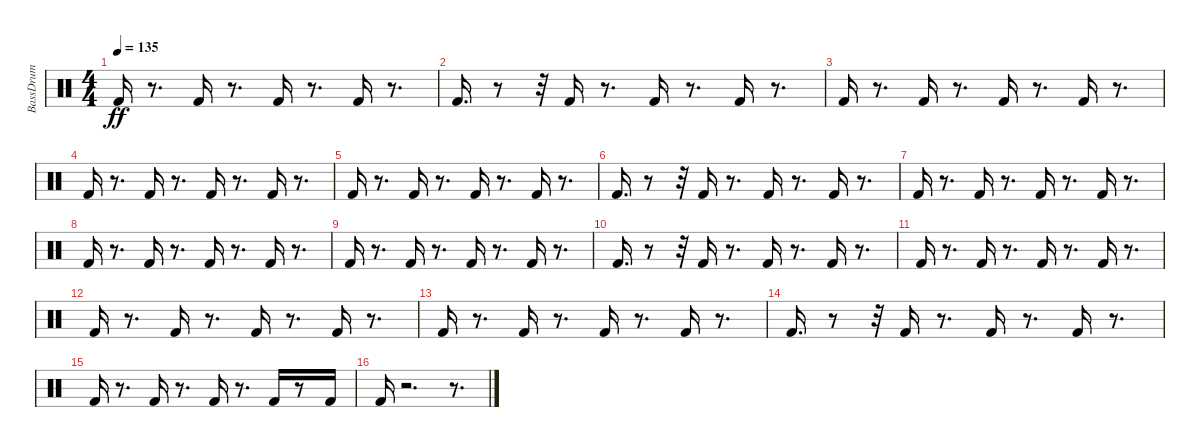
\track ("BassDrum" "BassDrum") {instrument percussion}
\staff {score}
\articulation defaults
\ts (4 4)
\tempo 135
\clef neutral
\ks c "Kick (hit) 2".16{dy ff}
r.8{d} "Kick (hit) 2".16 r.8{d} "Kick (hit) 2".16 r.8{d} "Kick (hit) 2".16 r.8{d} |
"Kick (hit) 2".16{d} r.8 r.32 "Kick (hit) 2".16 r.8{d} "Kick (hit) 2".16 r.8{d} "Kick (hit) 2".16 r.8{d} |
"Kick (hit) 2".16 r.8{d} "Kick (hit) 2".16 r.8{d} "Kick (hit) 2".16 r.8{d} "Kick (hit) 2".16 r.8{d} |
"Kick (hit) 2".16 r.8{d} "Kick (hit) 2".16 r.8{d} "Kick (hit) 2".16 r.8{d} "Kick (hit) 2".16 r.8{d} |
"Kick (hit) 2".16 r.8{d} "Kick (hit) 2".16 r.8{d} "Kick (hit) 2".16 r.8{d} "Kick (hit) 2".16 r.8{d} |
"Kick (hit) 2".16{d} r.8 r.32 "Kick (hit) 2".16 r.8{d} "Kick (hit) 2".16 r.8{d} "Kick (hit) 2".16 r.8{d} |
"Kick (hit) 2".16 r.8{d} "Kick (hit) 2".16 r.8{d} "Kick (hit) 2".16 r.8{d} "Kick (hit) 2".16 r.8{d} |
"Kick (hit) 2".16 r.8{d} "Kick (hit) 2".16 r.8{d} "Kick (hit) 2".16 r.8{d} "Kick (hit) 2".16 r.8{d} |
"Kick (hit) 2".16 r.8{d} "Kick (hit) 2".16 r.8{d} "Kick (hit) 2".16 r.8{d} "Kick (hit) 2".16 r.8{d} |
"Kick (hit) 2".16{d} r.8 r.32 "Kick (hit) 2".16 r.8{d} "Kick (hit) 2".16 r.8{d} "Kick (hit) 2".16 r.8{d} |
"Kick (hit) 2".16 r.8{d} "Kick (hit) 2".16 r.8{d} "Kick (hit) 2".16 r.8{d} "Kick (hit) 2".16 r.8{d} |
"Kick (hit) 2".16 r.8{d} "Kick (hit) 2".16 r.8{d} "Kick (hit) 2".16 r.8{d} "Kick (hit) 2".16 r.8{d} |
"Kick (hit) 2".16 r.8{d} "Kick (hit) 2".16 r.8{d} "Kick (hit) 2".16 r.8{d} "Kick (hit) 2".16 r.8{d} |
"Kick (hit) 2".16{d} r.8 r.32 "Kick (hit) 2".16 r.8{d} "Kick (hit) 2".16 r.8{d} "Kick (hit) 2".16 r.8{d} |
"Kick (hit) 2".16 r.8{d} "Kick (hit) 2".16 r.8{d} "Kick (hit) 2".16 r.8{d} "Kick (hit) 2".16 r.8 "Kick (hit) 2".16 |
"Kick (hit) 2".16 r.2{d} r.8{d}
